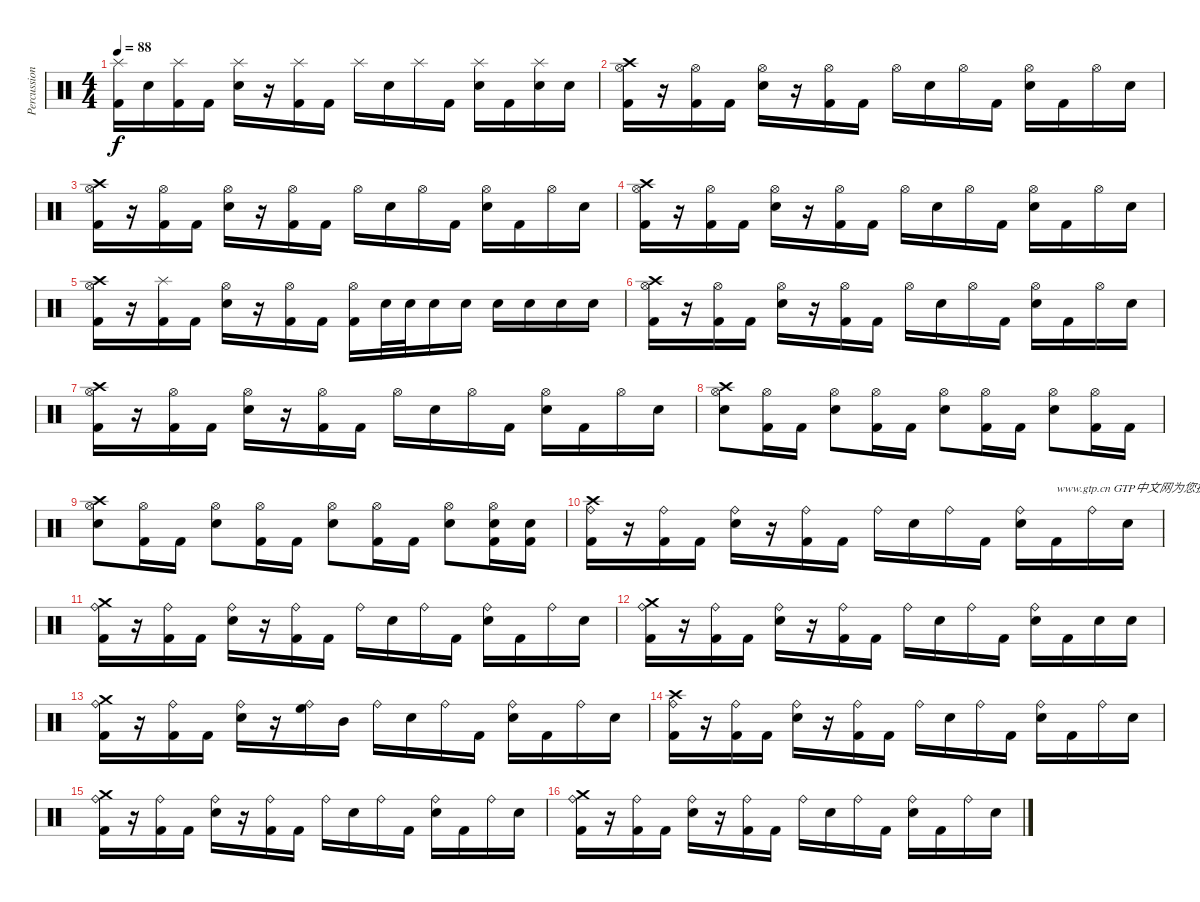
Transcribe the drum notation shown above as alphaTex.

\track ("Percussion" "Percussion") {instrument percussion}
\staff {score}
\articulation defaults
\ts (4 4)
\tempo 88
\clef neutral
\ks c
("Splash (hit)" "Kick (hit) 2").16{dy f} "Electric Snare (hit)".16 ("Splash (hit)" "Kick (hit) 2").16 "Kick (hit) 2".16 ("Splash (hit)" "Electric Snare (hit)").16 r.16 ("Splash (hit)" "Kick (hit) 2").16 "Kick (hit) 2".16 "Splash (hit)".16 "Electric Snare (hit)".16 "Splash (hit)".16 "Kick (hit) 2".16 ("Splash (hit)" "Electric Snare (hit)").16 "Kick (hit) 2".16 ("Splash (hit)" "Electric Snare (hit)").16 "Electric Snare (hit)".16 |
("Crash high (hit)" "Hi-Hat (open)" "Kick (hit) 2").16 r.16 ("Hi-Hat (open)" "Kick (hit) 2").16 "Kick (hit) 2".16 ("Hi-Hat (open)" "Electric Snare (hit)").16 r.16 ("Hi-Hat (open)" "Kick (hit) 2").16 "Kick (hit) 2".16 "Hi-Hat (open)".16 "Electric Snare (hit)".16 "Hi-Hat (open)".16 "Kick (hit) 2".16 ("Hi-Hat (open)" "Electric Snare (hit)").16 "Kick (hit) 2".16 "Hi-Hat (open)".16 "Electric Snare (hit)".16 |
("Crash high (hit)" "Hi-Hat (open)" "Kick (hit) 2").16 r.16 ("Hi-Hat (open)" "Kick (hit) 2").16 "Kick (hit) 2".16 ("Hi-Hat (open)" "Electric Snare (hit)").16 r.16 ("Hi-Hat (open)" "Kick (hit) 2").16 "Kick (hit) 2".16 "Hi-Hat (open)".16 "Electric Snare (hit)".16 "Hi-Hat (open)".16 "Kick (hit) 2".16 ("Hi-Hat (open)" "Electric Snare (hit)").16 "Kick (hit) 2".16 "Hi-Hat (open)".16 "Electric Snare (hit)".16 |
("Crash high (hit)" "Hi-Hat (open)" "Kick (hit) 2").16 r.16 ("Hi-Hat (open)" "Kick (hit) 2").16 "Kick (hit) 2".16 ("Hi-Hat (open)" "Electric Snare (hit)").16 r.16 ("Hi-Hat (open)" "Kick (hit) 2").16 "Kick (hit) 2".16 "Hi-Hat (open)".16 "Electric Snare (hit)".16 "Hi-Hat (open)".16 "Kick (hit) 2".16 ("Hi-Hat (open)" "Electric Snare (hit)").16 "Kick (hit) 2".16 "Hi-Hat (open)".16 "Electric Snare (hit)".16 |
("Crash high (hit)" "Hi-Hat (open)" "Kick (hit) 2").16 r.16 ("Splash (hit)" "Kick (hit) 2").16 "Kick (hit) 2".16 ("Hi-Hat (open)" "Electric Snare (hit)").16 r.16 ("Hi-Hat (open)" "Kick (hit) 2").16 "Kick (hit) 2".16 ("Hi-Hat (open)" "Kick (hit) 2").16 "Electric Snare (hit)".32 "Electric Snare (hit)".32 "Electric Snare (hit)".16 "Electric Snare (hit)".16 "Electric Snare (hit)".16 "Electric Snare (hit)".16 "Electric Snare (hit)".16 "Electric Snare (hit)".16 |
("Crash high (hit)" "Hi-Hat (open)" "Kick (hit) 2").16 r.16 ("Hi-Hat (open)" "Kick (hit) 2").16 "Kick (hit) 2".16 ("Hi-Hat (open)" "Electric Snare (hit)").16 r.16 ("Hi-Hat (open)" "Kick (hit) 2").16 "Kick (hit) 2".16 "Hi-Hat (open)".16 "Electric Snare (hit)".16 "Hi-Hat (open)".16 "Kick (hit) 2".16 ("Hi-Hat (open)" "Electric Snare (hit)").16 "Kick (hit) 2".16 "Hi-Hat (open)".16 "Electric Snare (hit)".16 |
("Crash high (hit)" "Hi-Hat (open)" "Kick (hit) 2").16 r.16 ("Hi-Hat (open)" "Kick (hit) 2").16 "Kick (hit) 2".16 ("Hi-Hat (open)" "Electric Snare (hit)").16 r.16 ("Hi-Hat (open)" "Kick (hit) 2").16 "Kick (hit) 2".16 "Hi-Hat (open)".16 "Electric Snare (hit)".16 "Hi-Hat (open)".16 "Kick (hit) 2".16 ("Hi-Hat (open)" "Electric Snare (hit)").16 "Kick (hit) 2".16 "Hi-Hat (open)".16 "Electric Snare (hit)".16 |
("Crash high (hit)" "Hi-Hat (open)" "Electric Snare (hit)").8 ("Hi-Hat (open)" "Kick (hit) 2").16 "Kick (hit) 2".16 ("Hi-Hat (open)" "Electric Snare (hit)").8 ("Hi-Hat (open)" "Kick (hit) 2").16 "Kick (hit) 2".16 ("Hi-Hat (open)" "Electric Snare (hit)").8 ("Hi-Hat (open)" "Kick (hit) 2").16 "Kick (hit) 2".16 ("Hi-Hat (open)" "Electric Snare (hit)").8 ("Hi-Hat (open)" "Kick (hit) 2").16 "Kick (hit) 2".16 |
("Crash high (hit)" "Hi-Hat (open)" "Electric Snare (hit)").8 ("Hi-Hat (open)" "Kick (hit) 2").16 "Kick (hit) 2".16 ("Hi-Hat (open)" "Electric Snare (hit)").8 ("Hi-Hat (open)" "Kick (hit) 2").16 "Kick (hit) 2".16 ("Hi-Hat (open)" "Electric Snare (hit)").8 ("Hi-Hat (open)" "Kick (hit) 2").16 "Kick (hit) 2".16 ("Hi-Hat (open)" "Electric Snare (hit)").8 ("Hi-Hat (open)" "Electric Snare (hit)" "Kick (hit) 2").16 ("Electric Snare (hit)" "Kick (hit) 2").16 |
("Crash high (hit)" "Ride (bell)" "Kick (hit) 2").16 r.16 ("Ride (bell)" "Kick (hit) 2").16 "Kick (hit) 2".16 ("Ride (bell)" "Electric Snare (hit)").16 r.16 ("Ride (bell)" "Kick (hit) 2").16 "Kick (hit) 2".16 "Ride (bell)".16 "Electric Snare (hit)".16 "Ride (bell)".16 "Kick (hit) 2".16 ("Ride (bell)" "Electric Snare (hit)").16 "Kick (hit) 2".16{txt "www.gtp.cn GTP中文网为您提供优秀的谱子"} "Ride (bell)".16 "Electric Snare (hit)".16 |
("Crash medium (hit)" "Ride (bell)" "Kick (hit) 2").16 r.16 ("Ride (bell)" "Kick (hit) 2").16 "Kick (hit) 2".16 ("Ride (bell)" "Electric Snare (hit)").16 r.16 ("Ride (bell)" "Kick (hit) 2").16 "Kick (hit) 2".16 "Ride (bell)".16 "Electric Snare (hit)".16 "Ride (bell)".16 "Kick (hit) 2".16 ("Ride (bell)" "Electric Snare (hit)").16 "Kick (hit) 2".16 "Ride (bell)".16 "Electric Snare (hit)".16 |
("Crash medium (hit)" "Ride (bell)" "Kick (hit) 2").16 r.16 ("Ride (bell)" "Kick (hit) 2").16 "Kick (hit) 2".16 ("Ride (bell)" "Electric Snare (hit)").16 r.16 ("Ride (bell)" "Kick (hit) 2").16 "Kick (hit) 2".16 "Ride (bell)".16 "Electric Snare (hit)".16 "Ride (bell)".16 "Kick (hit) 2".16 ("Ride (bell)" "Electric Snare (hit)").16 "Kick (hit) 2".16 "Electric Snare (hit)".16 "Electric Snare (hit)".16 |
("Crash medium (hit)" "Ride (bell)" "Kick (hit) 2").16 r.16 ("Ride (bell)" "Kick (hit) 2").16 "Kick (hit) 2".16 ("Ride (bell)" "Electric Snare (hit)").16 r.16 ("Ride (bell)" "High Floor Tom (hit)").16{volume 16} "Mid Tom (hit)".16 "Ride (bell)".16{volume 14} "Electric Snare (hit)".16 "Ride (bell)".16 "Kick (hit) 2".16 ("Ride (bell)" "Electric Snare (hit)").16 "Kick (hit) 2".16 "Ride (bell)".16 "Electric Snare (hit)".16 |
("Crash high (hit)" "Ride (bell)" "Kick (hit) 2").16 r.16 ("Ride (bell)" "Kick (hit) 2").16 "Kick (hit) 2".16 ("Ride (bell)" "Electric Snare (hit)").16 r.16 ("Ride (bell)" "Kick (hit) 2").16 "Kick (hit) 2".16 "Ride (bell)".16 "Electric Snare (hit)".16 "Ride (bell)".16 "Kick (hit) 2".16 ("Ride (bell)" "Electric Snare (hit)").16 "Kick (hit) 2".16 "Ride (bell)".16 "Electric Snare (hit)".16 |
("Crash medium (hit)" "Ride (bell)" "Kick (hit) 2").16 r.16 ("Ride (bell)" "Kick (hit) 2").16 "Kick (hit) 2".16 ("Ride (bell)" "Electric Snare (hit)").16 r.16 ("Ride (bell)" "Kick (hit) 2").16 "Kick (hit) 2".16 "Ride (bell)".16 "Electric Snare (hit)".16 "Ride (bell)".16 "Kick (hit) 2".16 ("Ride (bell)" "Electric Snare (hit)").16 "Kick (hit) 2".16 "Ride (bell)".16 "Electric Snare (hit)".16 |
("Crash medium (hit)" "Ride (bell)" "Kick (hit) 2").16 r.16 ("Ride (bell)" "Kick (hit) 2").16 "Kick (hit) 2".16 ("Ride (bell)" "Electric Snare (hit)").16 r.16 ("Ride (bell)" "Kick (hit) 2").16 "Kick (hit) 2".16 "Ride (bell)".16 "Electric Snare (hit)".16 "Ride (bell)".16 "Kick (hit) 2".16 ("Ride (bell)" "Electric Snare (hit)").16 "Kick (hit) 2".16 "Ride (bell)".16 "Electric Snare (hit)".16
